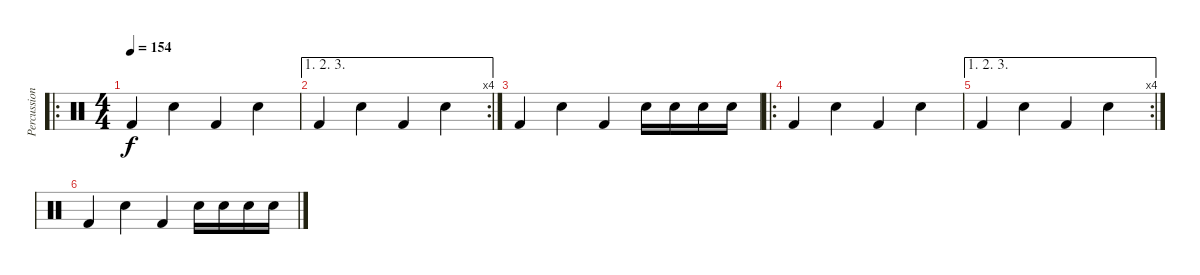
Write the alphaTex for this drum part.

\track ("Percussions" "Percussion") {instrument percussion}
\staff {score}
\articulation defaults
\ro
\ts (4 4)
\tempo 154
\clef neutral
\ks c "Kick (hit) 2".4{dy f} "Electric Snare (hit)".4 "Kick (hit) 2".4 "Electric Snare (hit)".4
|
\ae (1 2 3)
\rc 4 "Kick (hit) 2".4 "Electric Snare (hit)".4 "Kick (hit) 2".4 "Electric Snare (hit)".4
|
"Kick (hit) 2".4 "Electric Snare (hit)".4 "Kick (hit) 2".4 "Electric Snare (hit)".16 "Electric Snare (hit)".16 "Electric Snare (hit)".16 "Electric Snare (hit)".16 |
\ro "Kick (hit) 2".4 "Electric Snare (hit)".4 "Kick (hit) 2".4 "Electric Snare (hit)".4
|
\ae (1 2 3)
\rc 4 "Kick (hit) 2".4 "Electric Snare (hit)".4 "Kick (hit) 2".4 "Electric Snare (hit)".4
|
"Kick (hit) 2".4 "Electric Snare (hit)".4 "Kick (hit) 2".4 "Electric Snare (hit)".16 "Electric Snare (hit)".16 "Electric Snare (hit)".16 "Electric Snare (hit)".16
